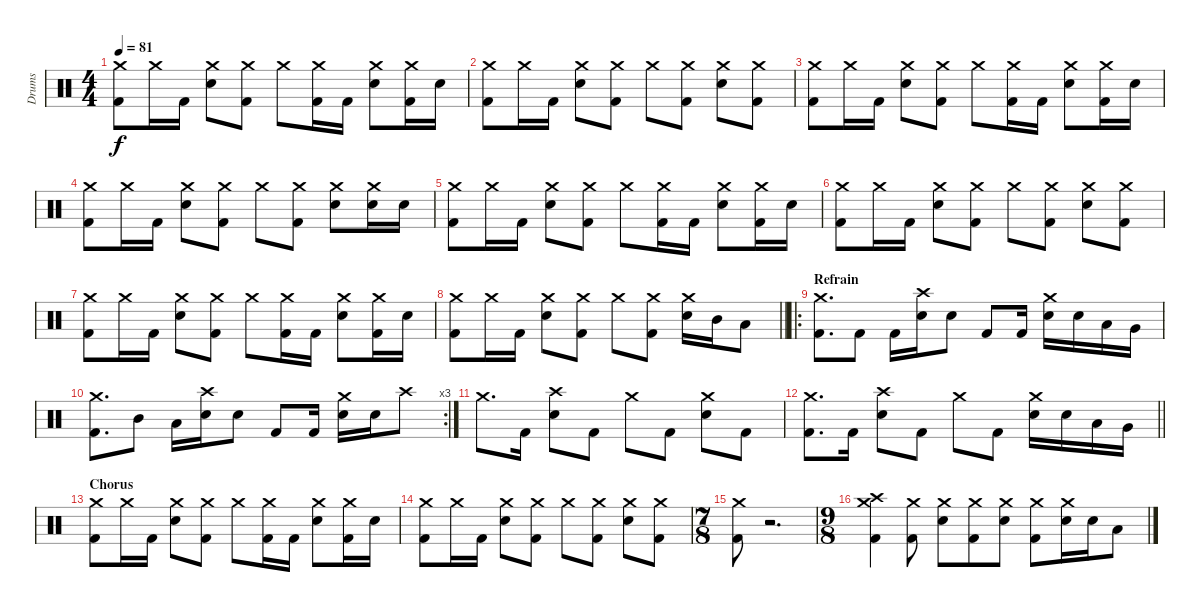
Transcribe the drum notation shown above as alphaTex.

\track ("Drums" "Drums") {instrument percussion}
\staff {score}
\articulation defaults
\ts (4 4)
\tempo 81
\clef neutral
\ks c
("Kick (hit) 2" "Crash medium (hit)").8{dy f} "Crash medium (hit)".16 "Kick (hit) 2".16 ("Electric Snare (hit)" "Crash medium (hit)").8 ("Kick (hit) 2" "Crash medium (hit)").8 "Crash medium (hit)".8 ("Kick (hit) 2" "Crash medium (hit)").16 "Kick (hit) 2".16 ("Electric Snare (hit)" "Crash medium (hit)").8 ("Kick (hit) 2" "Crash medium (hit)").16 "Electric Snare (hit)".16 |
("Kick (hit) 2" "Crash medium (hit)").8 "Crash medium (hit)".16 "Kick (hit) 2".16 ("Electric Snare (hit)" "Crash medium (hit)").8 ("Kick (hit) 2" "Crash medium (hit)").8 "Crash medium (hit)".8 ("Kick (hit) 2" "Crash medium (hit)").8 ("Electric Snare (hit)" "Crash medium (hit)").8 ("Kick (hit) 2" "Crash medium (hit)").8 |
("Kick (hit) 2" "Crash medium (hit)").8 "Crash medium (hit)".16 "Kick (hit) 2".16 ("Electric Snare (hit)" "Crash medium (hit)").8 ("Kick (hit) 2" "Crash medium (hit)").8 "Crash medium (hit)".8 ("Kick (hit) 2" "Crash medium (hit)").16 "Kick (hit) 2".16 ("Electric Snare (hit)" "Crash medium (hit)").8 ("Kick (hit) 2" "Crash medium (hit)").16 "Electric Snare (hit)".16 |
("Kick (hit) 2" "Crash medium (hit)").8 "Crash medium (hit)".16 "Kick (hit) 2".16 ("Electric Snare (hit)" "Crash medium (hit)").8 ("Kick (hit) 2" "Crash medium (hit)").8 "Crash medium (hit)".8 ("Kick (hit) 2" "Crash medium (hit)").8 ("Electric Snare (hit)" "Crash medium (hit)").8 ("Electric Snare (hit)" "Crash medium (hit)").16 "Electric Snare (hit)".16 |
("Kick (hit) 2" "Crash medium (hit)").8 "Crash medium (hit)".16 "Kick (hit) 2".16 ("Electric Snare (hit)" "Crash medium (hit)").8 ("Kick (hit) 2" "Crash medium (hit)").8 "Crash medium (hit)".8 ("Kick (hit) 2" "Crash medium (hit)").16 "Kick (hit) 2".16 ("Electric Snare (hit)" "Crash medium (hit)").8 ("Kick (hit) 2" "Crash medium (hit)").16 "Electric Snare (hit)".16 |
("Kick (hit) 2" "Crash medium (hit)").8 "Crash medium (hit)".16 "Kick (hit) 2".16 ("Electric Snare (hit)" "Crash medium (hit)").8 ("Kick (hit) 2" "Crash medium (hit)").8 "Crash medium (hit)".8 ("Kick (hit) 2" "Crash medium (hit)").8 ("Electric Snare (hit)" "Crash medium (hit)").8 ("Kick (hit) 2" "Crash medium (hit)").8 |
("Kick (hit) 2" "Crash medium (hit)").8 "Crash medium (hit)".16 "Kick (hit) 2".16 ("Electric Snare (hit)" "Crash medium (hit)").8 ("Kick (hit) 2" "Crash medium (hit)").8 "Crash medium (hit)".8 ("Kick (hit) 2" "Crash medium (hit)").16 "Kick (hit) 2".16 ("Electric Snare (hit)" "Crash medium (hit)").8 ("Kick (hit) 2" "Crash medium (hit)").16 "Electric Snare (hit)".16 |
\barLineRight lightlight
("Kick (hit) 2" "Crash medium (hit)").8 "Crash medium (hit)".16 "Kick (hit) 2".16 ("Electric Snare (hit)" "Crash medium (hit)").8 ("Kick (hit) 2" "Crash medium (hit)").8 "Crash medium (hit)".8 ("Kick (hit) 2" "Crash medium (hit)").8 ("Electric Snare (hit)" "Crash medium (hit)").16 "Mid Tom (hit)".16 "Low Tom (hit)".8 |
\ro
\section ("" "Refrain")
("Kick (hit) 2" "Crash medium (hit)").8{d} "Kick (hit) 2".8 "Kick (hit) 2".16 ("Electric Snare (hit)" "Crash high (hit)").16 "Electric Snare (hit)".8 "Kick (hit) 2".8 "Kick (hit) 2".16 ("Electric Snare (hit)" "Crash medium (hit)").16 "Electric Snare (hit)".16 "Low Tom (hit)".16 "Very Low Tom (hit)".16 |
\rc 3
("Kick (hit) 2" "Crash medium (hit)").8{d} "Mid Tom (hit)".8 "Low Tom (hit)".16 ("Electric Snare (hit)" "Crash high (hit)").16 "Electric Snare (hit)".8 "Kick (hit) 2".8 "Kick (hit) 2".16 ("Electric Snare (hit)" "Crash medium (hit)").16 "Electric Snare (hit)".16 "Crash high (hit)".8 |
"Crash medium (hit)".8{d} "Kick (hit) 2".16 ("Electric Snare (hit)" "Crash high (hit)").8 "Kick (hit) 2".8 "Crash medium (hit)".8 "Kick (hit) 2".8 ("Electric Snare (hit)" "Crash medium (hit)").8 "Kick (hit) 2".8 |
\barLineRight lightlight
("Kick (hit) 2" "Crash medium (hit)").8{d} "Kick (hit) 2".16 ("Electric Snare (hit)" "Crash high (hit)").8 "Kick (hit) 2".8 "Crash medium (hit)".8 "Kick (hit) 2".8 ("Electric Snare (hit)" "Crash medium (hit)").16 "Electric Snare (hit)".16 "Low Tom (hit)".16 "Very Low Tom (hit)".16 |
\section ("" "Chorus")
("Kick (hit) 2" "Crash medium (hit)").8 "Crash medium (hit)".16 "Kick (hit) 2".16 ("Electric Snare (hit)" "Crash medium (hit)").8 ("Kick (hit) 2" "Crash medium (hit)").8 "Crash medium (hit)".8 ("Kick (hit) 2" "Crash medium (hit)").16 "Kick (hit) 2".16 ("Electric Snare (hit)" "Crash medium (hit)").8 ("Kick (hit) 2" "Crash medium (hit)").16 "Electric Snare (hit)".16 |
("Kick (hit) 2" "Crash medium (hit)").8 "Crash medium (hit)".16 "Kick (hit) 2".16 ("Electric Snare (hit)" "Crash medium (hit)").8 ("Kick (hit) 2" "Crash medium (hit)").8 "Crash medium (hit)".8 ("Kick (hit) 2" "Crash medium (hit)").8 ("Electric Snare (hit)" "Crash medium (hit)").8 ("Kick (hit) 2" "Crash medium (hit)").8 |
\ts (7 8)
("Kick (hit) 2" "Crash medium (hit)").8 r.2{d} |
\ts (9 8)
("Kick (hit) 2" "Crash high (hit)" "Crash medium (hit)").4 ("Kick (hit) 2" "Crash medium (hit)").8 ("Electric Snare (hit)" "Crash medium (hit)").8 ("Kick (hit) 2" "Crash medium (hit)").8 ("Electric Snare (hit)" "Crash medium (hit)").8 ("Kick (hit) 2" "Crash medium (hit)").8 ("Electric Snare (hit)" "Crash medium (hit)").16 "Electric Snare (hit)".16 "Low Tom (hit)".8
